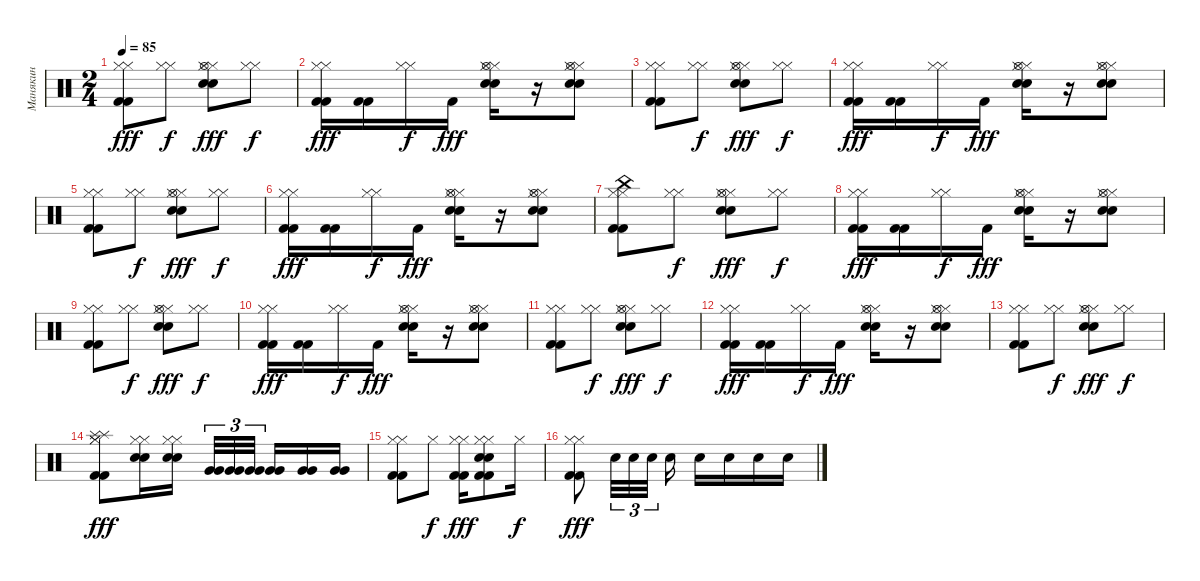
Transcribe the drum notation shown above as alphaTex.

\track ("Манякин" "Манякин") {instrument percussion}
\staff {score}
\articulation defaults
\ts (2 4)
\tempo 85
\clef neutral
\ks c
("Kick (hit) 2" "Kick (hit) 2" "Hi-Hat (closed)" "Hi-Hat (closed)").8{dy fff} ("Hi-Hat (closed)" "Hi-Hat (closed)").8{dy f} ("Snare (hit) 2" "Snare (hit) 2" "Hi-Hat (closed)" "Hi-Hat (closed)" "Hi-Hat (open)").8{dy fff} ("Hi-Hat (closed)" "Hi-Hat (closed)").8{dy f} |
("Kick (hit) 2" "Kick (hit) 2" "Hi-Hat (closed)" "Hi-Hat (closed)").16{dy fff} ("Kick (hit) 2" "Kick (hit) 2").16 ("Hi-Hat (closed)" "Hi-Hat (closed)").16{dy f} "Kick (hit) 2".16{dy fff} ("Snare (hit) 2" "Snare (hit) 2" "Hi-Hat (closed)" "Hi-Hat (closed)" "Hi-Hat (open)").16 r.16 ("Snare (hit) 2" "Snare (hit) 2" "Hi-Hat (closed)" "Hi-Hat (closed)" "Hi-Hat (open)").8 |
("Kick (hit) 2" "Kick (hit) 2" "Hi-Hat (closed)" "Hi-Hat (closed)").8 ("Hi-Hat (closed)" "Hi-Hat (closed)").8{dy f} ("Snare (hit) 2" "Snare (hit) 2" "Hi-Hat (closed)" "Hi-Hat (closed)" "Hi-Hat (open)").8{dy fff} ("Hi-Hat (closed)" "Hi-Hat (closed)").8{dy f} |
("Kick (hit) 2" "Kick (hit) 2" "Hi-Hat (closed)" "Hi-Hat (closed)").16{dy fff} ("Kick (hit) 2" "Kick (hit) 2").16 ("Hi-Hat (closed)" "Hi-Hat (closed)").16{dy f} "Kick (hit) 2".16{dy fff} ("Snare (hit) 2" "Snare (hit) 2" "Hi-Hat (closed)" "Hi-Hat (closed)" "Hi-Hat (open)").16 r.16 ("Snare (hit) 2" "Snare (hit) 2" "Hi-Hat (closed)" "Hi-Hat (closed)" "Hi-Hat (open)").8 |
("Kick (hit) 2" "Kick (hit) 2" "Hi-Hat (closed)" "Hi-Hat (closed)").8 ("Hi-Hat (closed)" "Hi-Hat (closed)").8{dy f} ("Snare (hit) 2" "Snare (hit) 2" "Hi-Hat (closed)" "Hi-Hat (closed)" "Hi-Hat (open)").8{dy fff} ("Hi-Hat (closed)" "Hi-Hat (closed)").8{dy f} |
("Kick (hit) 2" "Kick (hit) 2" "Hi-Hat (closed)" "Hi-Hat (closed)").16{dy fff} ("Kick (hit) 2" "Kick (hit) 2").16 ("Hi-Hat (closed)" "Hi-Hat (closed)").16{dy f} "Kick (hit) 2".16{dy fff} ("Snare (hit) 2" "Snare (hit) 2" "Hi-Hat (closed)" "Hi-Hat (closed)" "Hi-Hat (open)").16 r.16 ("Snare (hit) 2" "Snare (hit) 2" "Hi-Hat (closed)" "Hi-Hat (closed)" "Hi-Hat (open)").8 |
("Kick (hit) 2" "Kick (hit) 2" "Hi-Hat (closed)" "Hi-Hat (closed)" "China (hit)").8 ("Hi-Hat (closed)" "Hi-Hat (closed)").8{dy f} ("Snare (hit) 2" "Snare (hit) 2" "Hi-Hat (closed)" "Hi-Hat (closed)" "Hi-Hat (open)").8{dy fff} ("Hi-Hat (closed)" "Hi-Hat (closed)").8{dy f} |
("Kick (hit) 2" "Kick (hit) 2" "Hi-Hat (closed)" "Hi-Hat (closed)").16{dy fff} ("Kick (hit) 2" "Kick (hit) 2").16 ("Hi-Hat (closed)" "Hi-Hat (closed)").16{dy f} "Kick (hit) 2".16{dy fff} ("Snare (hit) 2" "Snare (hit) 2" "Hi-Hat (closed)" "Hi-Hat (closed)" "Hi-Hat (open)").16 r.16 ("Snare (hit) 2" "Snare (hit) 2" "Hi-Hat (closed)" "Hi-Hat (closed)" "Hi-Hat (open)").8 |
("Kick (hit) 2" "Kick (hit) 2" "Hi-Hat (closed)" "Hi-Hat (closed)").8 ("Hi-Hat (closed)" "Hi-Hat (closed)").8{dy f} ("Snare (hit) 2" "Snare (hit) 2" "Hi-Hat (closed)" "Hi-Hat (closed)" "Hi-Hat (open)").8{dy fff} ("Hi-Hat (closed)" "Hi-Hat (closed)").8{dy f} |
("Kick (hit) 2" "Kick (hit) 2" "Hi-Hat (closed)" "Hi-Hat (closed)").16{dy fff} ("Kick (hit) 2" "Kick (hit) 2").16 ("Hi-Hat (closed)" "Hi-Hat (closed)").16{dy f} "Kick (hit) 2".16{dy fff} ("Snare (hit) 2" "Snare (hit) 2" "Hi-Hat (closed)" "Hi-Hat (closed)" "Hi-Hat (open)").16 r.16 ("Snare (hit) 2" "Snare (hit) 2" "Hi-Hat (closed)" "Hi-Hat (closed)" "Hi-Hat (open)").8 |
("Kick (hit) 2" "Kick (hit) 2" "Hi-Hat (closed)" "Hi-Hat (closed)").8 ("Hi-Hat (closed)" "Hi-Hat (closed)").8{dy f} ("Snare (hit) 2" "Snare (hit) 2" "Hi-Hat (closed)" "Hi-Hat (closed)" "Hi-Hat (open)").8{dy fff} ("Hi-Hat (closed)" "Hi-Hat (closed)").8{dy f} |
("Kick (hit) 2" "Kick (hit) 2" "Hi-Hat (closed)" "Hi-Hat (closed)").16{dy fff} ("Kick (hit) 2" "Kick (hit) 2").16 ("Hi-Hat (closed)" "Hi-Hat (closed)").16{dy f} "Kick (hit) 2".16{dy fff} ("Snare (hit) 2" "Snare (hit) 2" "Hi-Hat (closed)" "Hi-Hat (closed)" "Hi-Hat (open)").16 r.16 ("Snare (hit) 2" "Snare (hit) 2" "Hi-Hat (closed)" "Hi-Hat (closed)" "Hi-Hat (open)").8 |
("Kick (hit) 2" "Kick (hit) 2" "Hi-Hat (closed)" "Hi-Hat (closed)").8 ("Hi-Hat (closed)" "Hi-Hat (closed)").8{dy f} ("Snare (hit) 2" "Snare (hit) 2" "Hi-Hat (closed)" "Hi-Hat (closed)" "Hi-Hat (open)").8{dy fff} ("Hi-Hat (closed)" "Hi-Hat (closed)").8{dy f} |
("Kick (hit) 2" "Kick (hit) 2" "Hi-Hat (closed)" "Hi-Hat (closed)" "Splash (hit)" "Splash (hit)").8{dy fff} ("Snare (hit) 2" "Snare (hit) 2" "Hi-Hat (closed)" "Hi-Hat (closed)").16 ("Snare (hit) 2" "Snare (hit) 2" "Hi-Hat (closed)" "Hi-Hat (closed)").16 ("Very Low Tom (hit)" "Very Low Tom (hit)").32{tu (3 2)} ("Very Low Tom (hit)" "Very Low Tom (hit)").32{tu (3 2)} ("Very Low Tom (hit)" "Very Low Tom (hit)").32{tu (3 2)} ("Very Low Tom (hit)" "Very Low Tom (hit)").16 ("Very Low Tom (hit)" "Very Low Tom (hit)").16 ("Very Low Tom (hit)" "Very Low Tom (hit)").16 |
("Kick (hit) 2" "Kick (hit) 2" "Hi-Hat (closed)" "Hi-Hat (closed)").8 "Hi-Hat (closed)".8{dy f} ("Kick (hit) 2" "Kick (hit) 2" "Hi-Hat (closed)" "Hi-Hat (closed)").16{dy fff} ("Kick (hit) 2" "Kick (hit) 2" "Snare (hit) 2" "Snare (hit) 2" "Hi-Hat (closed)" "Hi-Hat (closed)").8 "Hi-Hat (closed)".16{dy f} |
("Kick (hit) 2" "Kick (hit) 2" "Hi-Hat (closed)" "Hi-Hat (closed)").8{dy fff} "Snare (hit) 2".32{tu (3 2)} "Snare (hit) 2".32{tu (3 2)} "Snare (hit) 2".32{tu (3 2)} "Snare (hit) 2".16 "Snare (hit) 2".16 "Snare (hit) 2".16 "Snare (hit) 2".16 "Snare (hit) 2".16
